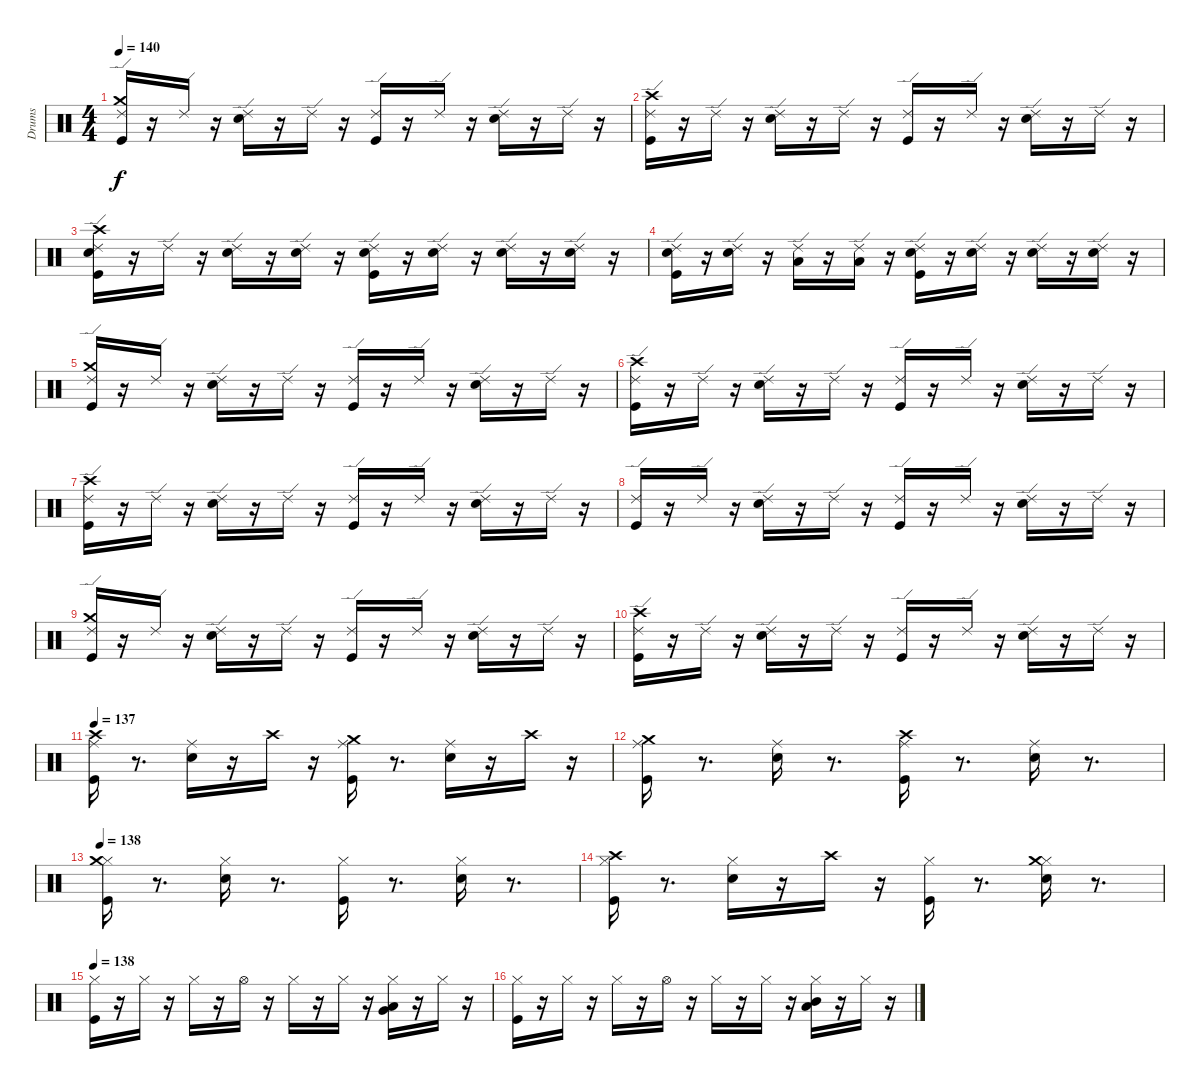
\track ("Drums" "Drums") {instrument percussion}
\staff {score}
\articulation defaults
\ts (4 4)
\tempo 140
\clef neutral
\ks c
("Ride (edge) 2" "Crash medium (hit)" "Kick (hit)").16{dy f} r.16 "Ride (edge) 2".16 r.16 ("Ride (edge) 2" "Snare (hit) 2").16 r.16 "Ride (edge) 2".16 r.16 ("Kick (hit)" "Ride (edge) 2").16 r.16 "Ride (edge) 2".16 r.16 ("Ride (edge) 2" "Snare (hit) 2").16 r.16 "Ride (edge) 2".16 r.16 |
("Ride (edge) 2" "Crash high (hit)" "Kick (hit)").16 r.16 "Ride (edge) 2".16 r.16 ("Ride (edge) 2" "Snare (hit) 2").16 r.16 "Ride (edge) 2".16 r.16 ("Ride (edge) 2" "Kick (hit)").16 r.16 "Ride (edge) 2".16 r.16 ("Ride (edge) 2" "Snare (hit) 2").16 r.16 "Ride (edge) 2".16 r.16 |
("Snare (hit) 2" "Crash high (hit)" "Ride (edge) 2" "Kick (hit)").16 r.16 "Ride (edge) 2".16 r.16 ("Snare (hit) 2" "Ride (edge) 2").16 r.16 ("Ride (edge) 2" "Snare (hit) 2").16 r.16 ("Ride (edge) 2" "Kick (hit)" "Snare (hit) 2").16 r.16 ("Ride (edge) 2" "Snare (hit) 2").16 r.16 ("Ride (edge) 2" "Snare (hit) 2").16 r.16 ("Snare (hit) 2" "Ride (edge) 2").16 r.16 |
("Snare (hit) 2" "Ride (edge) 2" "Kick (hit)").16 r.16 ("Snare (hit) 2" "Ride (edge) 2").16 r.16 ("Low Floor Tom (hit)" "Ride (edge) 2").16 r.16 ("Ride (edge) 2" "Low Floor Tom (hit)").16 r.16 ("Kick (hit)" "Ride (edge) 2" "Snare (hit) 2").16 r.16 ("Snare (hit) 2" "Ride (edge) 2").16 r.16 ("Snare (hit) 2" "Ride (edge) 2").16 r.16 ("Snare (hit) 2" "Ride (edge) 2").16 r.16 |
("Crash medium (hit)" "Ride (edge) 2" "Kick (hit)").16 r.16 "Ride (edge) 2".16 r.16 ("Snare (hit) 2" "Ride (edge) 2").16 r.16 "Ride (edge) 2".16 r.16 ("Kick (hit)" "Ride (edge) 2").16 r.16 "Ride (edge) 2".16 r.16 ("Ride (edge) 2" "Snare (hit) 2").16 r.16 "Ride (edge) 2".16 r.16 |
("Ride (edge) 2" "Kick (hit)" "Crash high (hit)").16 r.16 "Ride (edge) 2".16 r.16 ("Ride (edge) 2" "Snare (hit) 2").16 r.16 "Ride (edge) 2".16 r.16 ("Ride (edge) 2" "Kick (hit)").16 r.16 "Ride (edge) 2".16 r.16 ("Snare (hit) 2" "Ride (edge) 2").16 r.16 "Ride (edge) 2".16 r.16 |
("Kick (hit)" "Crash high (hit)" "Ride (edge) 2").16 r.16 "Ride (edge) 2".16 r.16 ("Ride (edge) 2" "Snare (hit) 2").16 r.16 "Ride (edge) 2".16 r.16 ("Ride (edge) 2" "Kick (hit)").16 r.16 "Ride (edge) 2".16 r.16 ("Ride (edge) 2" "Snare (hit) 2").16 r.16 "Ride (edge) 2".16 r.16 |
("Ride (edge) 2" "Kick (hit)").16 r.16 "Ride (edge) 2".16 r.16 ("Snare (hit) 2" "Ride (edge) 2").16 r.16 "Ride (edge) 2".16 r.16 ("Kick (hit)" "Ride (edge) 2").16 r.16 "Ride (edge) 2".16 r.16 ("Snare (hit) 2" "Ride (edge) 2").16 r.16 "Ride (edge) 2".16 r.16 |
("Crash medium (hit)" "Kick (hit)" "Ride (edge) 2").16 r.16 "Ride (edge) 2".16 r.16 ("Snare (hit) 2" "Ride (edge) 2").16 r.16 "Ride (edge) 2".16 r.16 ("Kick (hit)" "Ride (edge) 2").16 r.16 "Ride (edge) 2".16 r.16 ("Snare (hit) 2" "Ride (edge) 2").16 r.16 "Ride (edge) 2".16 r.16 |
("Crash high (hit)" "Kick (hit)" "Ride (edge) 2").16 r.16 "Ride (edge) 2".16 r.16 ("Snare (hit) 2" "Ride (edge) 2").16 r.16 "Ride (edge) 2".16 r.16 ("Kick (hit)" "Ride (edge) 2").16 r.16 "Ride (edge) 2".16 r.16 ("Snare (hit) 2" "Ride (edge) 2").16 r.16 "Ride (edge) 2".16 r.16 |
\tempo 137
("Ride (middle)" "Crash high (hit)" "Kick (hit)").16 r.8{d} ("Snare (hit) 2" "Ride (middle)").16 r.16 "Crash high (hit)".16 r.16 ("Crash medium (hit)" "Kick (hit)" "Ride (middle)").16 r.8{d} ("Snare (hit) 2" "Ride (middle)").16 r.16 "Crash high (hit)".16 r.16 |
("Crash medium (hit)" "Kick (hit)" "Ride (middle)").16 r.8{d} ("Ride (middle)" "Snare (hit) 2").16 r.8{d} ("Crash high (hit)" "Ride (middle)" "Kick (hit)").16 r.8{d} ("Ride (middle)" "Snare (hit) 2").16 r.8{d} |
\tempo 138
("Hi-Hat (closed)" "Crash medium (hit)" "Kick (hit)").16 r.8{d} ("Hi-Hat (closed)" "Snare (hit) 2").16 r.8{d} ("Hi-Hat (closed)" "Kick (hit)").16 r.8{d} ("Hi-Hat (closed)" "Snare (hit) 2").16 r.8{d} |
("Hi-Hat (closed)" "Crash high (hit)" "Kick (hit)").16 r.8{d} ("Hi-Hat (closed)" "Snare (hit) 2").16 r.16 "Crash high (hit)".16 r.16 ("Hi-Hat (closed)" "Kick (hit)").16 r.8{d} ("Hi-Hat (closed)" "Snare (hit) 2" "Crash medium (hit)").16 r.8{d} |
\tempo 138
("Hi-Hat (closed)" "Kick (hit)").16 r.16 "Hi-Hat (closed)".16 r.16 "Hi-Hat (closed)".16 r.16 "Hi-Hat (open)".16 r.16 "Hi-Hat (closed)".16 r.16 "Hi-Hat (closed)".16 r.16 ("Very Low Tom (hit)" "Low Tom (hit)" "Hi-Hat (closed)").16 r.16 "Hi-Hat (closed)".16 r.16 |
("Hi-Hat (closed)" "Kick (hit)").16 r.16 "Hi-Hat (closed)".16 r.16 "Hi-Hat (closed)".16 r.16 "Hi-Hat (open)".16 r.16 "Hi-Hat (closed)".16 r.16 "Hi-Hat (closed)".16 r.16 ("Mid Tom (hit)" "Low Tom (hit)" "Hi-Hat (closed)").16 r.16 "Hi-Hat (closed)".16 r.16
